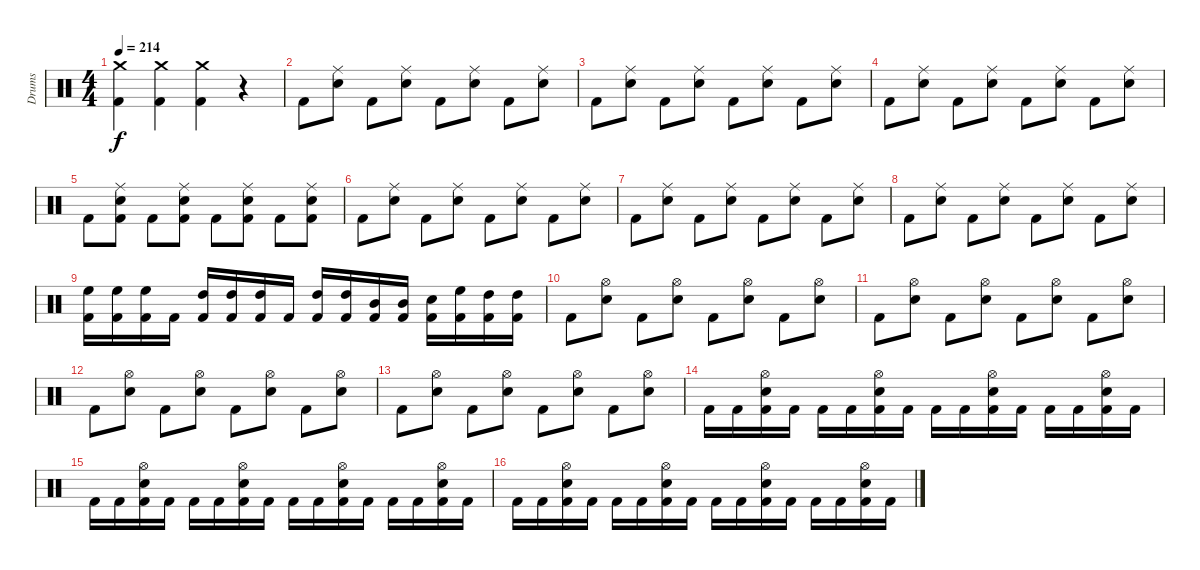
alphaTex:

\track ("Drums" "Drums") {instrument percussion}
\staff {score}
\articulation defaults
\ts (4 4)
\tempo 214
\clef neutral
\ks c
("Kick (hit) 2" "Crash medium (hit)").4{dy f} ("Kick (hit) 2" "Crash medium (hit)").4 ("Kick (hit) 2" "Crash medium (hit)").4 r.4 |
"Kick (hit) 2".8 ("Snare (hit) 2" "Ride (middle)").8 "Kick (hit) 2".8 ("Snare (hit) 2" "Ride (middle)").8 "Kick (hit) 2".8 ("Snare (hit) 2" "Ride (middle)").8 "Kick (hit) 2".8 ("Snare (hit) 2" "Ride (middle)").8 |
"Kick (hit) 2".8 ("Snare (hit) 2" "Ride (middle)").8 "Kick (hit) 2".8 ("Snare (hit) 2" "Ride (middle)").8 "Kick (hit) 2".8 ("Snare (hit) 2" "Ride (middle)").8 "Kick (hit) 2".8 ("Snare (hit) 2" "Ride (middle)").8 |
"Kick (hit) 2".8 ("Snare (hit) 2" "Ride (middle)").8 "Kick (hit) 2".8 ("Snare (hit) 2" "Ride (middle)").8 "Kick (hit) 2".8 ("Snare (hit) 2" "Ride (middle)").8 "Kick (hit) 2".8 ("Snare (hit) 2" "Ride (middle)").8 |
"Kick (hit) 2".8 ("Kick (hit) 2" "Snare (hit) 2" "Ride (middle)").8 "Kick (hit) 2".8 ("Kick (hit) 2" "Snare (hit) 2" "Ride (middle)").8 "Kick (hit) 2".8 ("Kick (hit) 2" "Snare (hit) 2" "Ride (middle)").8 "Kick (hit) 2".8 ("Kick (hit) 2" "Snare (hit) 2" "Ride (middle)").8 |
"Kick (hit) 2".8 ("Snare (hit) 2" "Ride (middle)").8 "Kick (hit) 2".8 ("Snare (hit) 2" "Ride (middle)").8 "Kick (hit) 2".8 ("Snare (hit) 2" "Ride (middle)").8 "Kick (hit) 2".8 ("Snare (hit) 2" "Ride (middle)").8 |
"Kick (hit) 2".8 ("Snare (hit) 2" "Ride (middle)").8 "Kick (hit) 2".8 ("Snare (hit) 2" "Ride (middle)").8 "Kick (hit) 2".8 ("Snare (hit) 2" "Ride (middle)").8 "Kick (hit) 2".8 ("Snare (hit) 2" "Ride (middle)").8 |
"Kick (hit) 2".8 ("Snare (hit) 2" "Ride (middle)").8 "Kick (hit) 2".8 ("Snare (hit) 2" "Ride (middle)").8 "Kick (hit) 2".8 ("Snare (hit) 2" "Ride (middle)").8 "Kick (hit) 2".8 ("Snare (hit) 2" "Ride (middle)").8 |
("Kick (hit) 2" "High Floor Tom (hit)").16 ("Kick (hit) 2" "High Floor Tom (hit)").16 ("Kick (hit) 2" "High Floor Tom (hit)").16 "Kick (hit) 2".16 ("Kick (hit) 2" "High Tom (hit)").16 ("Kick (hit) 2" "High Tom (hit)").16 ("Kick (hit) 2" "High Tom (hit)").16 "Kick (hit) 2".16 ("Kick (hit) 2" "High Tom (hit)").16 ("Kick (hit) 2" "High Tom (hit)").16 ("Kick (hit) 2" "Mid Tom (hit)").16 ("Kick (hit) 2" "Mid Tom (hit)").16 ("Kick (hit) 2" "Snare (hit) 2").16 ("Kick (hit) 2" "High Floor Tom (hit)").16 ("Kick (hit) 2" "High Tom (hit)").16 ("Kick (hit) 2" "High Tom (hit)").16 |
"Kick (hit) 2".8 ("Snare (hit) 2" "Hi-Hat (open)").8 "Kick (hit) 2".8 ("Snare (hit) 2" "Hi-Hat (open)").8 "Kick (hit) 2".8 ("Snare (hit) 2" "Hi-Hat (open)").8 "Kick (hit) 2".8 ("Snare (hit) 2" "Hi-Hat (open)").8 |
"Kick (hit) 2".8 ("Snare (hit) 2" "Hi-Hat (open)").8 "Kick (hit) 2".8 ("Snare (hit) 2" "Hi-Hat (open)").8 "Kick (hit) 2".8 ("Snare (hit) 2" "Hi-Hat (open)").8 "Kick (hit) 2".8 ("Snare (hit) 2" "Hi-Hat (open)").8 |
"Kick (hit) 2".8 ("Snare (hit) 2" "Hi-Hat (open)").8 "Kick (hit) 2".8 ("Snare (hit) 2" "Hi-Hat (open)").8 "Kick (hit) 2".8 ("Snare (hit) 2" "Hi-Hat (open)").8 "Kick (hit) 2".8 ("Snare (hit) 2" "Hi-Hat (open)").8 |
"Kick (hit) 2".8 ("Snare (hit) 2" "Hi-Hat (open)").8 "Kick (hit) 2".8 ("Snare (hit) 2" "Hi-Hat (open)").8 "Kick (hit) 2".8 ("Snare (hit) 2" "Hi-Hat (open)").8 "Kick (hit) 2".8 ("Snare (hit) 2" "Hi-Hat (open)").8 |
"Kick (hit) 2".16 "Kick (hit) 2".16 ("Kick (hit) 2" "Snare (hit) 2" "Hi-Hat (open)").16 "Kick (hit) 2".16 "Kick (hit) 2".16 "Kick (hit) 2".16 ("Kick (hit) 2" "Snare (hit) 2" "Hi-Hat (open)").16 "Kick (hit) 2".16 "Kick (hit) 2".16 "Kick (hit) 2".16 ("Kick (hit) 2" "Snare (hit) 2" "Hi-Hat (open)").16 "Kick (hit) 2".16 "Kick (hit) 2".16 "Kick (hit) 2".16 ("Kick (hit) 2" "Snare (hit) 2" "Hi-Hat (open)").16 "Kick (hit) 2".16 |
"Kick (hit) 2".16 "Kick (hit) 2".16 ("Kick (hit) 2" "Snare (hit) 2" "Hi-Hat (open)").16 "Kick (hit) 2".16 "Kick (hit) 2".16 "Kick (hit) 2".16 ("Kick (hit) 2" "Snare (hit) 2" "Hi-Hat (open)").16 "Kick (hit) 2".16 "Kick (hit) 2".16 "Kick (hit) 2".16 ("Kick (hit) 2" "Snare (hit) 2" "Hi-Hat (open)").16 "Kick (hit) 2".16 "Kick (hit) 2".16 "Kick (hit) 2".16 ("Kick (hit) 2" "Snare (hit) 2" "Hi-Hat (open)").16 "Kick (hit) 2".16 |
"Kick (hit) 2".16 "Kick (hit) 2".16 ("Kick (hit) 2" "Snare (hit) 2" "Hi-Hat (open)").16 "Kick (hit) 2".16 "Kick (hit) 2".16 "Kick (hit) 2".16 ("Kick (hit) 2" "Snare (hit) 2" "Hi-Hat (open)").16 "Kick (hit) 2".16 "Kick (hit) 2".16 "Kick (hit) 2".16 ("Kick (hit) 2" "Snare (hit) 2" "Hi-Hat (open)").16 "Kick (hit) 2".16 "Kick (hit) 2".16 "Kick (hit) 2".16 ("Kick (hit) 2" "Snare (hit) 2" "Hi-Hat (open)").16 "Kick (hit) 2".16
